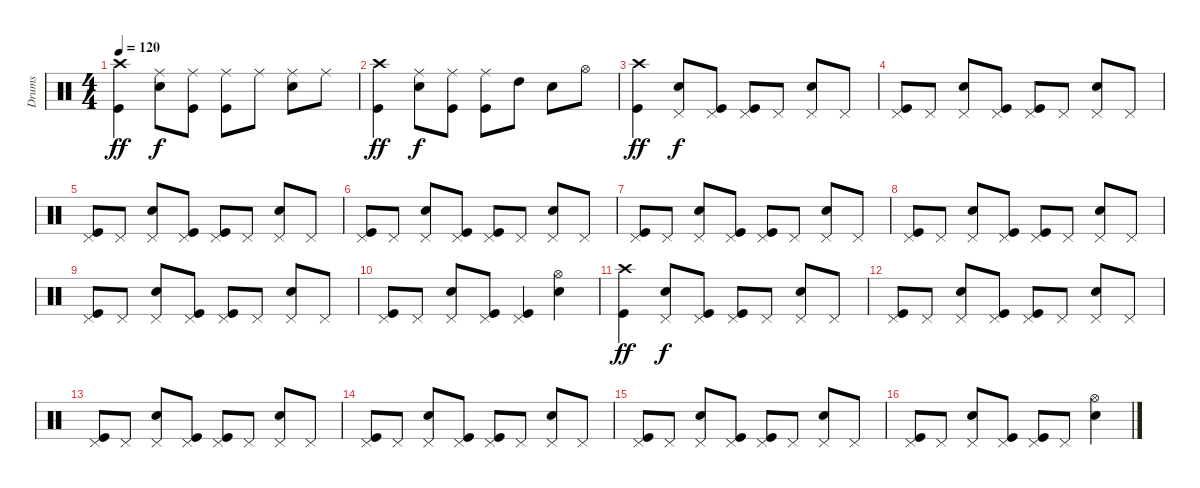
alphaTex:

\track ("Drums" "Drums") {instrument percussion}
\staff {score}
\articulation defaults
\ts (4 4)
\tempo 120
\clef neutral
\ks c
("Kick (hit)" "Crash high (hit)").4{dy ff} ("Snare (hit) 2" "Ride (middle)").8{dy f} ("Kick (hit)" "Ride (middle)").8 ("Kick (hit)" "Ride (middle)").8 "Ride (middle)".8 ("Snare (hit) 2" "Ride (middle)").8 "Ride (middle)".8 |
("Kick (hit)" "Crash high (hit)").4{dy ff} ("Snare (hit) 2" "Ride (middle)").8{dy f} ("Kick (hit)" "Ride (middle)").8 ("Kick (hit)" "Ride (middle)").8 "High Tom (hit)".8 "Snare (hit) 2".8 "Hi-Hat (open)".8 |
("Kick (hit)" "Crash high (hit)").4{dy ff} ("Snare (hit) 2" "Pedal Hi-Hat (hit)").8{dy f} ("Kick (hit)" "Pedal Hi-Hat (hit)").8 ("Kick (hit)" "Pedal Hi-Hat (hit)").8 "Pedal Hi-Hat (hit)".8 ("Snare (hit) 2" "Pedal Hi-Hat (hit)").8 "Pedal Hi-Hat (hit)".8 |
("Kick (hit)" "Pedal Hi-Hat (hit)").8 "Pedal Hi-Hat (hit)".8 ("Snare (hit) 2" "Pedal Hi-Hat (hit)").8 ("Kick (hit)" "Pedal Hi-Hat (hit)").8 ("Kick (hit)" "Pedal Hi-Hat (hit)").8 "Pedal Hi-Hat (hit)".8 ("Snare (hit) 2" "Pedal Hi-Hat (hit)").8 "Pedal Hi-Hat (hit)".8 |
("Kick (hit)" "Pedal Hi-Hat (hit)").8 "Pedal Hi-Hat (hit)".8 ("Snare (hit) 2" "Pedal Hi-Hat (hit)").8 ("Kick (hit)" "Pedal Hi-Hat (hit)").8 ("Kick (hit)" "Pedal Hi-Hat (hit)").8 "Pedal Hi-Hat (hit)".8 ("Snare (hit) 2" "Pedal Hi-Hat (hit)").8 "Pedal Hi-Hat (hit)".8 |
("Kick (hit)" "Pedal Hi-Hat (hit)").8 "Pedal Hi-Hat (hit)".8 ("Snare (hit) 2" "Pedal Hi-Hat (hit)").8 ("Kick (hit)" "Pedal Hi-Hat (hit)").8 ("Kick (hit)" "Pedal Hi-Hat (hit)").8 "Pedal Hi-Hat (hit)".8 ("Snare (hit) 2" "Pedal Hi-Hat (hit)").8 "Pedal Hi-Hat (hit)".8 |
("Kick (hit)" "Pedal Hi-Hat (hit)").8 "Pedal Hi-Hat (hit)".8 ("Snare (hit) 2" "Pedal Hi-Hat (hit)").8 ("Kick (hit)" "Pedal Hi-Hat (hit)").8 ("Kick (hit)" "Pedal Hi-Hat (hit)").8 "Pedal Hi-Hat (hit)".8 ("Snare (hit) 2" "Pedal Hi-Hat (hit)").8 "Pedal Hi-Hat (hit)".8 |
("Kick (hit)" "Pedal Hi-Hat (hit)").8 "Pedal Hi-Hat (hit)".8 ("Snare (hit) 2" "Pedal Hi-Hat (hit)").8 ("Kick (hit)" "Pedal Hi-Hat (hit)").8 ("Kick (hit)" "Pedal Hi-Hat (hit)").8 "Pedal Hi-Hat (hit)".8 ("Snare (hit) 2" "Pedal Hi-Hat (hit)").8 "Pedal Hi-Hat (hit)".8 |
("Kick (hit)" "Pedal Hi-Hat (hit)").8 "Pedal Hi-Hat (hit)".8 ("Snare (hit) 2" "Pedal Hi-Hat (hit)").8 ("Kick (hit)" "Pedal Hi-Hat (hit)").8 ("Kick (hit)" "Pedal Hi-Hat (hit)").8 "Pedal Hi-Hat (hit)".8 ("Snare (hit) 2" "Pedal Hi-Hat (hit)").8 "Pedal Hi-Hat (hit)".8 |
("Kick (hit)" "Pedal Hi-Hat (hit)").8 "Pedal Hi-Hat (hit)".8 ("Snare (hit) 2" "Pedal Hi-Hat (hit)").8 ("Kick (hit)" "Pedal Hi-Hat (hit)").8 ("Kick (hit)" "Pedal Hi-Hat (hit)").4 ("Snare (hit) 2" "Hi-Hat (open)").4 |
("Kick (hit)" "Crash high (hit)").4{dy ff} ("Snare (hit) 2" "Pedal Hi-Hat (hit)").8{dy f} ("Kick (hit)" "Pedal Hi-Hat (hit)").8 ("Kick (hit)" "Pedal Hi-Hat (hit)").8 "Pedal Hi-Hat (hit)".8 ("Snare (hit) 2" "Pedal Hi-Hat (hit)").8 "Pedal Hi-Hat (hit)".8 |
("Kick (hit)" "Pedal Hi-Hat (hit)").8 "Pedal Hi-Hat (hit)".8 ("Snare (hit) 2" "Pedal Hi-Hat (hit)").8 ("Kick (hit)" "Pedal Hi-Hat (hit)").8 ("Kick (hit)" "Pedal Hi-Hat (hit)").8 "Pedal Hi-Hat (hit)".8 ("Snare (hit) 2" "Pedal Hi-Hat (hit)").8 "Pedal Hi-Hat (hit)".8 |
("Kick (hit)" "Pedal Hi-Hat (hit)").8 "Pedal Hi-Hat (hit)".8 ("Snare (hit) 2" "Pedal Hi-Hat (hit)").8 ("Kick (hit)" "Pedal Hi-Hat (hit)").8 ("Kick (hit)" "Pedal Hi-Hat (hit)").8 "Pedal Hi-Hat (hit)".8 ("Snare (hit) 2" "Pedal Hi-Hat (hit)").8 "Pedal Hi-Hat (hit)".8 |
("Kick (hit)" "Pedal Hi-Hat (hit)").8 "Pedal Hi-Hat (hit)".8 ("Snare (hit) 2" "Pedal Hi-Hat (hit)").8 ("Kick (hit)" "Pedal Hi-Hat (hit)").8 ("Kick (hit)" "Pedal Hi-Hat (hit)").8 "Pedal Hi-Hat (hit)".8 ("Snare (hit) 2" "Pedal Hi-Hat (hit)").8 "Pedal Hi-Hat (hit)".8 |
("Kick (hit)" "Pedal Hi-Hat (hit)").8 "Pedal Hi-Hat (hit)".8 ("Snare (hit) 2" "Pedal Hi-Hat (hit)").8 ("Kick (hit)" "Pedal Hi-Hat (hit)").8 ("Kick (hit)" "Pedal Hi-Hat (hit)").8 "Pedal Hi-Hat (hit)".8 ("Snare (hit) 2" "Pedal Hi-Hat (hit)").8 "Pedal Hi-Hat (hit)".8 |
("Kick (hit)" "Pedal Hi-Hat (hit)").8 "Pedal Hi-Hat (hit)".8 ("Snare (hit) 2" "Pedal Hi-Hat (hit)").8 ("Kick (hit)" "Pedal Hi-Hat (hit)").8 ("Kick (hit)" "Pedal Hi-Hat (hit)").8 "Pedal Hi-Hat (hit)".8 ("Snare (hit) 2" "Hi-Hat (open)").4
